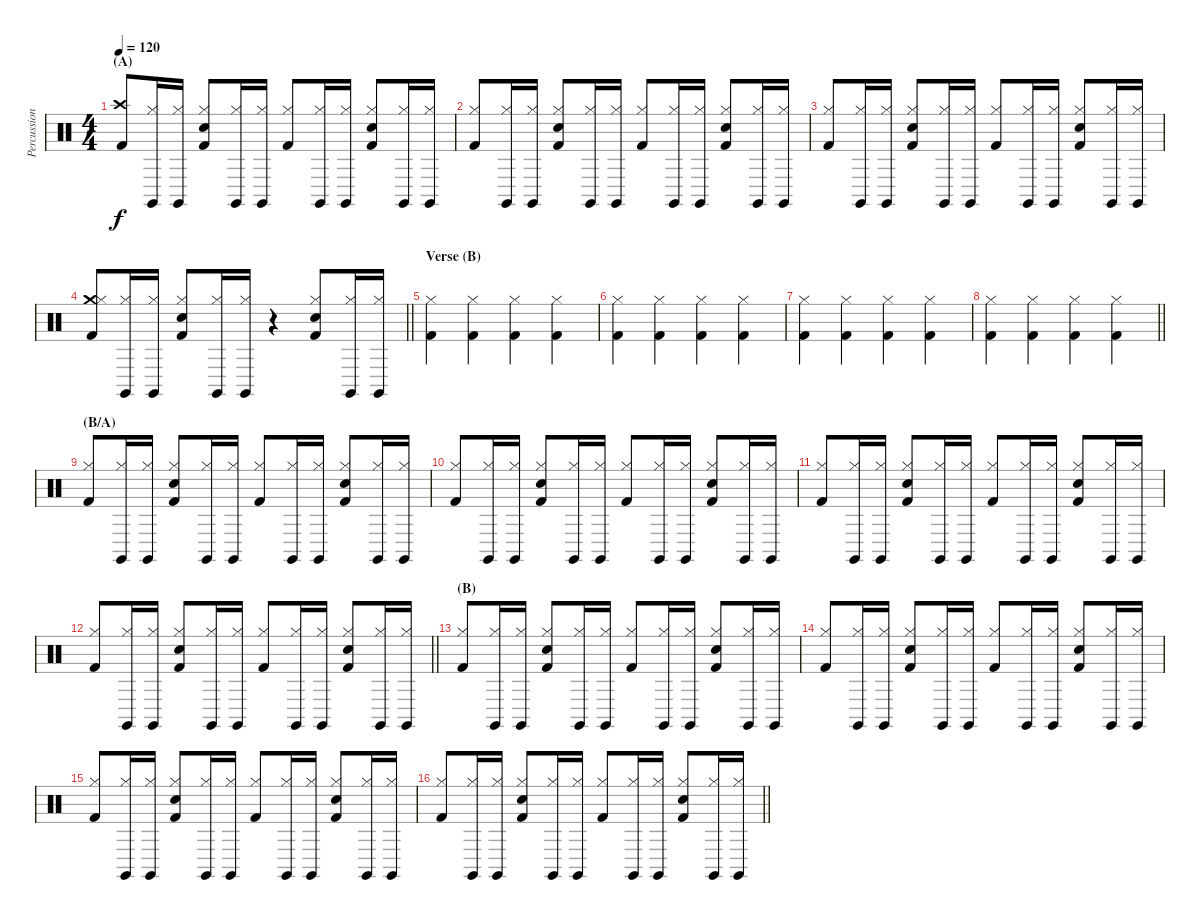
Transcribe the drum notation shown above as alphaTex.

\track ("Percussion" "Percussion") {instrument percussion}
\staff {score}
\articulation defaults
\ts (4 4)
\section ("" "(A)")
\tempo 120
\clef neutral
\ks c
("Crash high (hit)" "Kick (hit) 2").8{dy f} ("Hi-Hat (closed)" "Claves (hit)").16 ("Hi-Hat (closed)" "Claves (hit)").16 ("Hi-Hat (closed)" "Electric Snare (hit)" "Kick (hit) 2").8 ("Hi-Hat (closed)" "Claves (hit)").16 ("Hi-Hat (closed)" "Claves (hit)").16 ("Hi-Hat (closed)" "Kick (hit) 2").8 ("Hi-Hat (closed)" "Claves (hit)").16 ("Hi-Hat (closed)" "Claves (hit)").16 ("Hi-Hat (closed)" "Electric Snare (hit)" "Kick (hit) 2").8 ("Hi-Hat (closed)" "Claves (hit)").16 ("Hi-Hat (closed)" "Claves (hit)").16 |
("Hi-Hat (closed)" "Kick (hit) 2").8 ("Hi-Hat (closed)" "Claves (hit)").16 ("Hi-Hat (closed)" "Claves (hit)").16 ("Hi-Hat (closed)" "Electric Snare (hit)" "Kick (hit) 2").8 ("Hi-Hat (closed)" "Claves (hit)").16 ("Hi-Hat (closed)" "Claves (hit)").16 ("Hi-Hat (closed)" "Kick (hit) 2").8 ("Hi-Hat (closed)" "Claves (hit)").16 ("Hi-Hat (closed)" "Claves (hit)").16 ("Hi-Hat (closed)" "Electric Snare (hit)" "Kick (hit) 2").8 ("Hi-Hat (closed)" "Claves (hit)").16 ("Hi-Hat (closed)" "Claves (hit)").16 |
("Hi-Hat (closed)" "Kick (hit) 2").8 ("Hi-Hat (closed)" "Claves (hit)").16 ("Hi-Hat (closed)" "Claves (hit)").16 ("Hi-Hat (closed)" "Electric Snare (hit)" "Kick (hit) 2").8 ("Hi-Hat (closed)" "Claves (hit)").16 ("Hi-Hat (closed)" "Claves (hit)").16 ("Hi-Hat (closed)" "Kick (hit) 2").8 ("Hi-Hat (closed)" "Claves (hit)").16 ("Hi-Hat (closed)" "Claves (hit)").16 ("Hi-Hat (closed)" "Electric Snare (hit)" "Kick (hit) 2").8 ("Hi-Hat (closed)" "Claves (hit)").16 ("Hi-Hat (closed)" "Claves (hit)").16 |
\barLineRight lightlight
("Crash medium (hit)" "Hi-Hat (closed)" "Kick (hit) 2").8 ("Hi-Hat (closed)" "Claves (hit)").16 ("Hi-Hat (closed)" "Claves (hit)").16 ("Hi-Hat (closed)" "Electric Snare (hit)" "Kick (hit) 2").8 ("Hi-Hat (closed)" "Claves (hit)").16 ("Hi-Hat (closed)" "Claves (hit)").16 r.4 ("Hi-Hat (closed)" "Electric Snare (hit)" "Kick (hit) 2").8 ("Hi-Hat (closed)" "Claves (hit)").16 ("Hi-Hat (closed)" "Claves (hit)").16 |
\section ("" "Verse (B)")
("Hi-Hat (closed)" "Kick (hit) 2").4 ("Hi-Hat (closed)" "Kick (hit) 2").4 ("Hi-Hat (closed)" "Kick (hit) 2").4 ("Hi-Hat (closed)" "Kick (hit) 2").4 |
("Hi-Hat (closed)" "Kick (hit) 2").4 ("Hi-Hat (closed)" "Kick (hit) 2").4 ("Hi-Hat (closed)" "Kick (hit) 2").4 ("Hi-Hat (closed)" "Kick (hit) 2").4 |
("Hi-Hat (closed)" "Kick (hit) 2").4 ("Hi-Hat (closed)" "Kick (hit) 2").4 ("Hi-Hat (closed)" "Kick (hit) 2").4 ("Hi-Hat (closed)" "Kick (hit) 2").4 |
\barLineRight lightlight
("Hi-Hat (closed)" "Kick (hit) 2").4 ("Hi-Hat (closed)" "Kick (hit) 2").4 ("Hi-Hat (closed)" "Kick (hit) 2").4 ("Hi-Hat (closed)" "Kick (hit) 2").4 |
\section ("" "(B/A)")
("Hi-Hat (closed)" "Kick (hit) 2").8 ("Hi-Hat (closed)" "Claves (hit)").16 ("Hi-Hat (closed)" "Claves (hit)").16 ("Hi-Hat (closed)" "Electric Snare (hit)" "Kick (hit) 2").8 ("Hi-Hat (closed)" "Claves (hit)").16 ("Hi-Hat (closed)" "Claves (hit)").16 ("Hi-Hat (closed)" "Kick (hit) 2").8 ("Hi-Hat (closed)" "Claves (hit)").16 ("Hi-Hat (closed)" "Claves (hit)").16 ("Hi-Hat (closed)" "Electric Snare (hit)" "Kick (hit) 2").8 ("Hi-Hat (closed)" "Claves (hit)").16 ("Hi-Hat (closed)" "Claves (hit)").16 |
("Hi-Hat (closed)" "Kick (hit) 2").8 ("Hi-Hat (closed)" "Claves (hit)").16 ("Hi-Hat (closed)" "Claves (hit)").16 ("Hi-Hat (closed)" "Electric Snare (hit)" "Kick (hit) 2").8 ("Hi-Hat (closed)" "Claves (hit)").16 ("Hi-Hat (closed)" "Claves (hit)").16 ("Hi-Hat (closed)" "Kick (hit) 2").8 ("Hi-Hat (closed)" "Claves (hit)").16 ("Hi-Hat (closed)" "Claves (hit)").16 ("Hi-Hat (closed)" "Electric Snare (hit)" "Kick (hit) 2").8 ("Hi-Hat (closed)" "Claves (hit)").16 ("Hi-Hat (closed)" "Claves (hit)").16 |
("Hi-Hat (closed)" "Kick (hit) 2").8 ("Hi-Hat (closed)" "Claves (hit)").16 ("Hi-Hat (closed)" "Claves (hit)").16 ("Hi-Hat (closed)" "Electric Snare (hit)" "Kick (hit) 2").8 ("Hi-Hat (closed)" "Claves (hit)").16 ("Hi-Hat (closed)" "Claves (hit)").16 ("Hi-Hat (closed)" "Kick (hit) 2").8 ("Hi-Hat (closed)" "Claves (hit)").16 ("Hi-Hat (closed)" "Claves (hit)").16 ("Hi-Hat (closed)" "Electric Snare (hit)" "Kick (hit) 2").8 ("Hi-Hat (closed)" "Claves (hit)").16 ("Hi-Hat (closed)" "Claves (hit)").16 |
\barLineRight lightlight
("Hi-Hat (closed)" "Kick (hit) 2").8 ("Hi-Hat (closed)" "Claves (hit)").16 ("Hi-Hat (closed)" "Claves (hit)").16 ("Hi-Hat (closed)" "Electric Snare (hit)" "Kick (hit) 2").8 ("Hi-Hat (closed)" "Claves (hit)").16 ("Hi-Hat (closed)" "Claves (hit)").16 ("Hi-Hat (closed)" "Kick (hit) 2").8 ("Hi-Hat (closed)" "Claves (hit)").16 ("Hi-Hat (closed)" "Claves (hit)").16 ("Hi-Hat (closed)" "Electric Snare (hit)" "Kick (hit) 2").8 ("Hi-Hat (closed)" "Claves (hit)").16 ("Hi-Hat (closed)" "Claves (hit)").16 |
\section ("" "(B)")
("Hi-Hat (closed)" "Kick (hit) 2").8 ("Hi-Hat (closed)" "Claves (hit)").16 ("Hi-Hat (closed)" "Claves (hit)").16 ("Hi-Hat (closed)" "Electric Snare (hit)" "Kick (hit) 2").8 ("Hi-Hat (closed)" "Claves (hit)").16 ("Hi-Hat (closed)" "Claves (hit)").16 ("Hi-Hat (closed)" "Kick (hit) 2").8 ("Hi-Hat (closed)" "Claves (hit)").16 ("Hi-Hat (closed)" "Claves (hit)").16 ("Hi-Hat (closed)" "Electric Snare (hit)" "Kick (hit) 2").8 ("Hi-Hat (closed)" "Claves (hit)").16 ("Hi-Hat (closed)" "Claves (hit)").16 |
("Hi-Hat (closed)" "Kick (hit) 2").8 ("Hi-Hat (closed)" "Claves (hit)").16 ("Hi-Hat (closed)" "Claves (hit)").16 ("Hi-Hat (closed)" "Electric Snare (hit)" "Kick (hit) 2").8 ("Hi-Hat (closed)" "Claves (hit)").16 ("Hi-Hat (closed)" "Claves (hit)").16 ("Hi-Hat (closed)" "Kick (hit) 2").8 ("Hi-Hat (closed)" "Claves (hit)").16 ("Hi-Hat (closed)" "Claves (hit)").16 ("Hi-Hat (closed)" "Electric Snare (hit)" "Kick (hit) 2").8 ("Hi-Hat (closed)" "Claves (hit)").16 ("Hi-Hat (closed)" "Claves (hit)").16 |
("Hi-Hat (closed)" "Kick (hit) 2").8 ("Hi-Hat (closed)" "Claves (hit)").16 ("Hi-Hat (closed)" "Claves (hit)").16 ("Hi-Hat (closed)" "Electric Snare (hit)" "Kick (hit) 2").8 ("Hi-Hat (closed)" "Claves (hit)").16 ("Hi-Hat (closed)" "Claves (hit)").16 ("Hi-Hat (closed)" "Kick (hit) 2").8 ("Hi-Hat (closed)" "Claves (hit)").16 ("Hi-Hat (closed)" "Claves (hit)").16 ("Hi-Hat (closed)" "Electric Snare (hit)" "Kick (hit) 2").8 ("Hi-Hat (closed)" "Claves (hit)").16 ("Hi-Hat (closed)" "Claves (hit)").16 |
\barLineRight lightlight
("Hi-Hat (closed)" "Kick (hit) 2").8 ("Hi-Hat (closed)" "Claves (hit)").16 ("Hi-Hat (closed)" "Claves (hit)").16 ("Hi-Hat (closed)" "Electric Snare (hit)" "Kick (hit) 2").8 ("Hi-Hat (closed)" "Claves (hit)").16 ("Hi-Hat (closed)" "Claves (hit)").16 ("Hi-Hat (closed)" "Kick (hit) 2").8 ("Hi-Hat (closed)" "Claves (hit)").16 ("Hi-Hat (closed)" "Claves (hit)").16 ("Hi-Hat (closed)" "Electric Snare (hit)" "Kick (hit) 2").8 ("Hi-Hat (closed)" "Claves (hit)").16 ("Hi-Hat (closed)" "Claves (hit)").16
